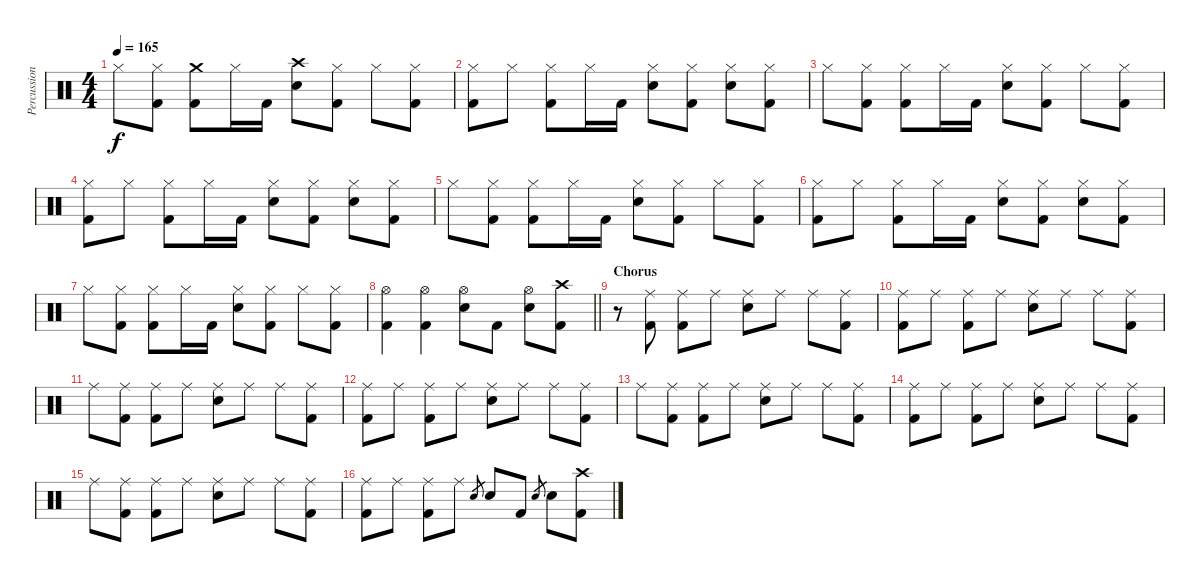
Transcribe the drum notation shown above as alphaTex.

\track ("Percussion" "Percussion") {instrument percussion}
\staff {score}
\articulation defaults
\ts (4 4)
\tempo 165
\clef neutral
\ks c "Hi-Hat (closed)".8{dy f}
("Hi-Hat (closed)" "Kick (hit) 2").8 ("Crash medium (hit)" "Kick (hit) 2").8 "Hi-Hat (closed)".16 "Kick (hit) 2".16 ("Crash high (hit)" "Electric Snare (hit)").8 ("Hi-Hat (closed)" "Kick (hit) 2").8 "Hi-Hat (closed)".8 ("Hi-Hat (closed)" "Kick (hit) 2").8 |
("Hi-Hat (closed)" "Kick (hit) 2").8 "Hi-Hat (closed)".8 ("Hi-Hat (closed)" "Kick (hit) 2").8 "Hi-Hat (closed)".16 "Kick (hit) 2".16 ("Hi-Hat (closed)" "Electric Snare (hit)").8 ("Hi-Hat (closed)" "Kick (hit) 2").8 ("Hi-Hat (closed)" "Electric Snare (hit)").8 ("Hi-Hat (closed)" "Kick (hit) 2").8 |
"Hi-Hat (closed)".8 ("Hi-Hat (closed)" "Kick (hit) 2").8 ("Hi-Hat (closed)" "Kick (hit) 2").8 "Hi-Hat (closed)".16 "Kick (hit) 2".16 ("Hi-Hat (closed)" "Electric Snare (hit)").8 ("Hi-Hat (closed)" "Kick (hit) 2").8 "Hi-Hat (closed)".8 ("Hi-Hat (closed)" "Kick (hit) 2").8 |
("Hi-Hat (closed)" "Kick (hit) 2").8 "Hi-Hat (closed)".8 ("Hi-Hat (closed)" "Kick (hit) 2").8 "Hi-Hat (closed)".16 "Kick (hit) 2".16 ("Hi-Hat (closed)" "Electric Snare (hit)").8 ("Hi-Hat (closed)" "Kick (hit) 2").8 ("Hi-Hat (closed)" "Electric Snare (hit)").8 ("Hi-Hat (closed)" "Kick (hit) 2").8 |
"Hi-Hat (closed)".8 ("Hi-Hat (closed)" "Kick (hit) 2").8 ("Hi-Hat (closed)" "Kick (hit) 2").8 "Hi-Hat (closed)".16 "Kick (hit) 2".16 ("Hi-Hat (closed)" "Electric Snare (hit)").8 ("Hi-Hat (closed)" "Kick (hit) 2").8 "Hi-Hat (closed)".8 ("Hi-Hat (closed)" "Kick (hit) 2").8 |
("Hi-Hat (closed)" "Kick (hit) 2").8 "Hi-Hat (closed)".8 ("Hi-Hat (closed)" "Kick (hit) 2").8 "Hi-Hat (closed)".16 "Kick (hit) 2".16 ("Hi-Hat (closed)" "Electric Snare (hit)").8 ("Hi-Hat (closed)" "Kick (hit) 2").8 ("Hi-Hat (closed)" "Electric Snare (hit)").8 ("Hi-Hat (closed)" "Kick (hit) 2").8 |
"Hi-Hat (closed)".8 ("Hi-Hat (closed)" "Kick (hit) 2").8 ("Hi-Hat (closed)" "Kick (hit) 2").8 "Hi-Hat (closed)".16 "Kick (hit) 2".16 ("Hi-Hat (closed)" "Electric Snare (hit)").8 ("Hi-Hat (closed)" "Kick (hit) 2").8 "Hi-Hat (closed)".8 ("Hi-Hat (closed)" "Kick (hit) 2").8 |
\barLineRight lightlight
("Hi-Hat (open)" "Kick (hit) 2").4 ("Hi-Hat (open)" "Kick (hit) 2").4 ("Hi-Hat (open)" "Electric Snare (hit)").8 "Kick (hit) 2".8 ("Hi-Hat (open)" "Electric Snare (hit)").8 ("Crash high (hit)" "Kick (hit) 2").8 |
\section ("" "Chorus")
r.8 ("Ride (middle)" "Kick (hit) 2").8 ("Ride (middle)" "Kick (hit) 2").8 "Ride (middle)".8 ("Ride (middle)" "Electric Snare (hit)").8 "Ride (middle)".8 "Ride (middle)".8 ("Ride (middle)" "Kick (hit) 2").8 |
("Ride (middle)" "Kick (hit) 2").8 "Ride (middle)".8 ("Ride (middle)" "Kick (hit) 2").8 "Ride (middle)".8 ("Ride (middle)" "Electric Snare (hit)").8 "Ride (middle)".8 "Ride (middle)".8 ("Ride (middle)" "Kick (hit) 2").8 |
"Ride (middle)".8 ("Ride (middle)" "Kick (hit) 2").8 ("Ride (middle)" "Kick (hit) 2").8 "Ride (middle)".8 ("Ride (middle)" "Electric Snare (hit)").8 "Ride (middle)".8 "Ride (middle)".8 ("Ride (middle)" "Kick (hit) 2").8 |
("Ride (middle)" "Kick (hit) 2").8 "Ride (middle)".8 ("Ride (middle)" "Kick (hit) 2").8 "Ride (middle)".8 ("Ride (middle)" "Electric Snare (hit)").8 "Ride (middle)".8 "Ride (middle)".8 ("Ride (middle)" "Kick (hit) 2").8 |
"Ride (middle)".8 ("Ride (middle)" "Kick (hit) 2").8 ("Ride (middle)" "Kick (hit) 2").8 "Ride (middle)".8 ("Ride (middle)" "Electric Snare (hit)").8 "Ride (middle)".8 "Ride (middle)".8 ("Ride (middle)" "Kick (hit) 2").8 |
("Ride (middle)" "Kick (hit) 2").8 "Ride (middle)".8 ("Ride (middle)" "Kick (hit) 2").8 "Ride (middle)".8 ("Ride (middle)" "Electric Snare (hit)").8 "Ride (middle)".8 "Ride (middle)".8 ("Ride (middle)" "Kick (hit) 2").8 |
"Ride (middle)".8 ("Ride (middle)" "Kick (hit) 2").8 ("Ride (middle)" "Kick (hit) 2").8 "Ride (middle)".8 ("Ride (middle)" "Electric Snare (hit)").8 "Ride (middle)".8 "Ride (middle)".8 ("Ride (middle)" "Kick (hit) 2").8 |
("Ride (middle)" "Kick (hit) 2").8 "Ride (middle)".8 ("Ride (middle)" "Kick (hit) 2").8 "Ride (middle)".8 "Electric Snare (hit)".8{gr} "Electric Snare (hit)".8 "Kick (hit) 2".8 "Electric Snare (hit)".8{gr} "Electric Snare (hit)".8 ("Crash high (hit)" "Kick (hit) 2").8
